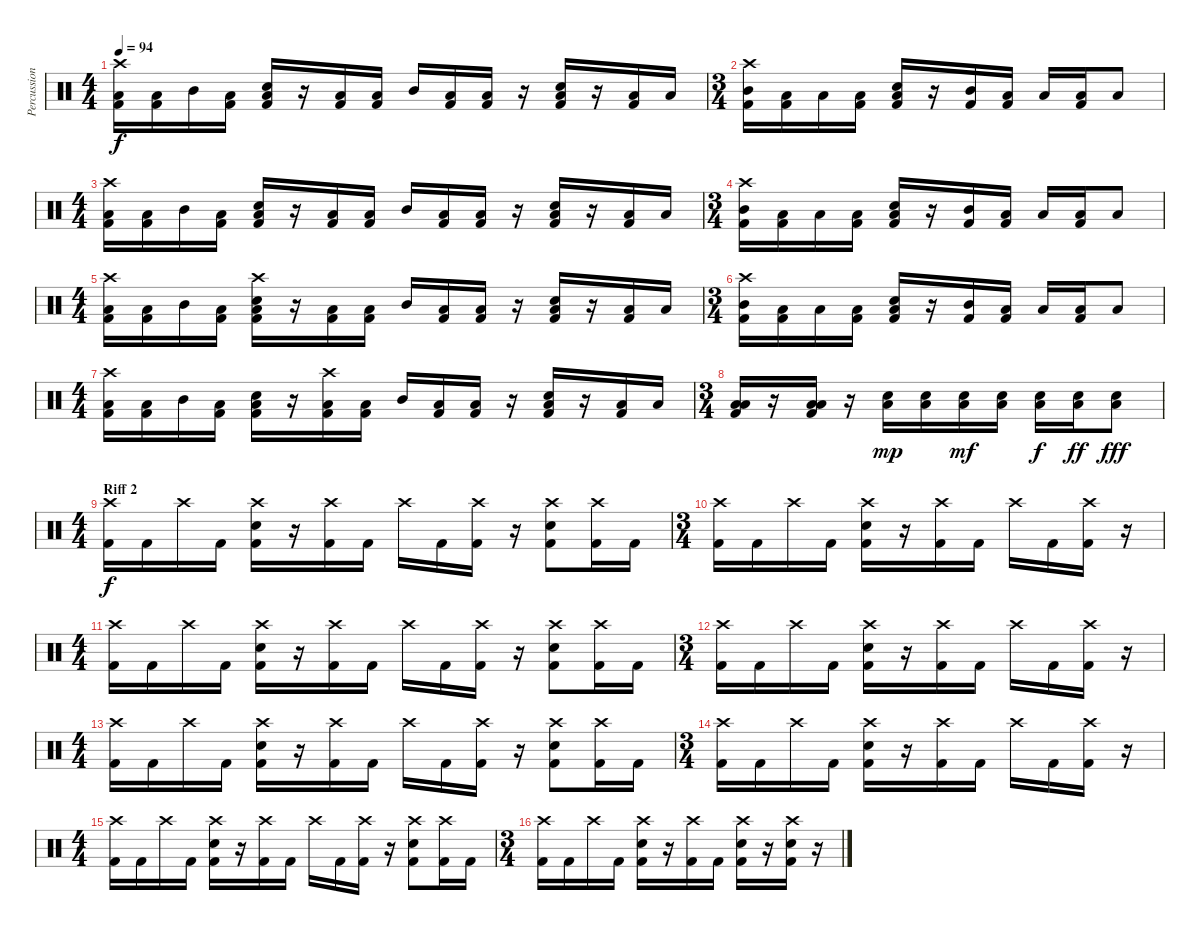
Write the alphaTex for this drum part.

\track ("Percussion" "Percussion") {instrument percussion}
\staff {score}
\articulation defaults
\ts (4 4)
\tempo 94
\clef neutral
\ks c
("Crash high (hit)" "Low Tom (hit)" "Kick (hit) 2").16{dy f} ("Low Floor Tom (hit)" "Kick (hit) 2").16 "Mid Tom (hit)".16 ("Low Tom (hit)" "Kick (hit) 2").16 ("Electric Snare (hit)" "Low Floor Tom (hit)" "Kick (hit) 2").16 r.16 ("Low Tom (hit)" "Kick (hit) 2").16 ("Low Floor Tom (hit)" "Kick (hit) 2").16 "Mid Tom (hit)".16 ("Low Tom (hit)" "Kick (hit) 2").16 ("Low Floor Tom (hit)" "Kick (hit) 2").16 r.16 ("Electric Snare (hit)" "Low Tom (hit)" "Kick (hit) 2").16 r.16 ("Low Tom (hit)" "Kick (hit) 2").16 "Low Floor Tom (hit)".16 |
\ts (3 4)
("Crash high (hit)" "Mid Tom (hit)" "Kick (hit) 2").16 ("Low Tom (hit)" "Kick (hit) 2").16 "Low Floor Tom (hit)".16 ("Low Tom (hit)" "Kick (hit) 2").16 ("Electric Snare (hit)" "Low Floor Tom (hit)" "Kick (hit) 2").16 r.16 ("Mid Tom (hit)" "Kick (hit) 2").16 ("Low Tom (hit)" "Kick (hit) 2").16 "Low Tom (hit)".16 ("Low Tom (hit)" "Kick (hit) 2").16 "Low Floor Tom (hit)".8 |
\ts (4 4)
("Crash high (hit)" "Low Tom (hit)" "Kick (hit) 2").16 ("Low Floor Tom (hit)" "Kick (hit) 2").16 "Mid Tom (hit)".16 ("Low Tom (hit)" "Kick (hit) 2").16 ("Electric Snare (hit)" "Low Floor Tom (hit)" "Kick (hit) 2").16 r.16 ("Low Tom (hit)" "Kick (hit) 2").16 ("Low Floor Tom (hit)" "Kick (hit) 2").16 "Mid Tom (hit)".16 ("Low Tom (hit)" "Kick (hit) 2").16 ("Low Floor Tom (hit)" "Kick (hit) 2").16 r.16 ("Electric Snare (hit)" "Low Tom (hit)" "Kick (hit) 2").16 r.16 ("Low Tom (hit)" "Kick (hit) 2").16 "Low Floor Tom (hit)".16 |
\ts (3 4)
("Crash high (hit)" "Mid Tom (hit)" "Kick (hit) 2").16 ("Low Tom (hit)" "Kick (hit) 2").16 "Low Floor Tom (hit)".16 ("Low Tom (hit)" "Kick (hit) 2").16 ("Electric Snare (hit)" "Low Floor Tom (hit)" "Kick (hit) 2").16 r.16 ("Mid Tom (hit)" "Kick (hit) 2").16 ("Low Tom (hit)" "Kick (hit) 2").16 "Low Tom (hit)".16 ("Low Tom (hit)" "Kick (hit) 2").16 "Low Floor Tom (hit)".8 |
\ts (4 4)
("Crash high (hit)" "Low Tom (hit)" "Kick (hit) 2").16 ("Low Floor Tom (hit)" "Kick (hit) 2").16 "Mid Tom (hit)".16 ("Low Tom (hit)" "Kick (hit) 2").16 ("Crash high (hit)" "Electric Snare (hit)" "Low Floor Tom (hit)" "Kick (hit) 2").16 r.16 ("Low Tom (hit)" "Kick (hit) 2").16 ("Low Floor Tom (hit)" "Kick (hit) 2").16 "Mid Tom (hit)".16 ("Low Tom (hit)" "Kick (hit) 2").16 ("Low Floor Tom (hit)" "Kick (hit) 2").16 r.16 ("Electric Snare (hit)" "Low Tom (hit)" "Kick (hit) 2").16 r.16 ("Low Tom (hit)" "Kick (hit) 2").16 "Low Floor Tom (hit)".16 |
\ts (3 4)
("Crash high (hit)" "Mid Tom (hit)" "Kick (hit) 2").16 ("Low Tom (hit)" "Kick (hit) 2").16 "Low Floor Tom (hit)".16 ("Low Tom (hit)" "Kick (hit) 2").16 ("Electric Snare (hit)" "Low Floor Tom (hit)" "Kick (hit) 2").16 r.16 ("Mid Tom (hit)" "Kick (hit) 2").16 ("Low Tom (hit)" "Kick (hit) 2").16 "Low Tom (hit)".16 ("Low Tom (hit)" "Kick (hit) 2").16 "Low Floor Tom (hit)".8 |
\ts (4 4)
("Crash high (hit)" "Low Tom (hit)" "Kick (hit) 2").16 ("Low Floor Tom (hit)" "Kick (hit) 2").16 "Mid Tom (hit)".16 ("Low Tom (hit)" "Kick (hit) 2").16 ("Electric Snare (hit)" "Low Floor Tom (hit)" "Kick (hit) 2").16 r.16 ("Crash high (hit)" "Low Tom (hit)" "Kick (hit) 2").16 ("Low Floor Tom (hit)" "Kick (hit) 2").16 "Mid Tom (hit)".16 ("Low Tom (hit)" "Kick (hit) 2").16 ("Low Floor Tom (hit)" "Kick (hit) 2").16 r.16 ("Electric Snare (hit)" "Low Tom (hit)" "Kick (hit) 2").16 r.16 ("Low Tom (hit)" "Kick (hit) 2").16 "Low Floor Tom (hit)".16 |
\ts (3 4)
("Low Tom (hit)" "Low Floor Tom (hit)" "Kick (hit) 2").16 r.16 ("Low Tom (hit)" "Low Floor Tom (hit)" "Kick (hit) 2").16 r.16 ("Electric Snare (hit)" "Low Floor Tom (hit)").16{dy mp} ("Electric Snare (hit)" "Low Floor Tom (hit)").16 ("Electric Snare (hit)" "Low Floor Tom (hit)").16{dy mf} ("Electric Snare (hit)" "Low Floor Tom (hit)").16 ("Electric Snare (hit)" "Low Floor Tom (hit)").16{dy f} ("Electric Snare (hit)" "Low Floor Tom (hit)").16{dy ff} ("Electric Snare (hit)" "Low Floor Tom (hit)").8{dy fff} |
\ts (4 4)
\section ("" "Riff 2")
("Crash high (hit)" "Kick (hit) 2").16{dy f} "Kick (hit) 2".16 "Crash high (hit)".16 "Kick (hit) 2".16 ("Crash high (hit)" "Electric Snare (hit)" "Kick (hit) 2").16 r.16 ("Crash high (hit)" "Kick (hit) 2").16 "Kick (hit) 2".16 "Crash high (hit)".16 "Kick (hit) 2".16 ("Crash high (hit)" "Kick (hit) 2").16 r.16 ("Crash high (hit)" "Electric Snare (hit)" "Kick (hit) 2").8 ("Crash high (hit)" "Kick (hit) 2").16 "Kick (hit) 2".16 |
\ts (3 4)
("Crash high (hit)" "Kick (hit) 2").16 "Kick (hit) 2".16 "Crash high (hit)".16 "Kick (hit) 2".16 ("Crash high (hit)" "Electric Snare (hit)" "Kick (hit) 2").16 r.16 ("Crash high (hit)" "Kick (hit) 2").16 "Kick (hit) 2".16 "Crash high (hit)".16 "Kick (hit) 2".16 ("Crash high (hit)" "Kick (hit) 2").16 r.16 |
\ts (4 4)
("Crash high (hit)" "Kick (hit) 2").16 "Kick (hit) 2".16 "Crash high (hit)".16 "Kick (hit) 2".16 ("Crash high (hit)" "Electric Snare (hit)" "Kick (hit) 2").16 r.16 ("Crash high (hit)" "Kick (hit) 2").16 "Kick (hit) 2".16 "Crash high (hit)".16 "Kick (hit) 2".16 ("Crash high (hit)" "Kick (hit) 2").16 r.16 ("Crash high (hit)" "Electric Snare (hit)" "Kick (hit) 2").8 ("Crash high (hit)" "Kick (hit) 2").16 "Kick (hit) 2".16 |
\ts (3 4)
("Crash high (hit)" "Kick (hit) 2").16 "Kick (hit) 2".16 "Crash high (hit)".16 "Kick (hit) 2".16 ("Crash high (hit)" "Electric Snare (hit)" "Kick (hit) 2").16 r.16 ("Crash high (hit)" "Kick (hit) 2").16 "Kick (hit) 2".16 "Crash high (hit)".16 "Kick (hit) 2".16 ("Crash high (hit)" "Kick (hit) 2").16 r.16 |
\ts (4 4)
("Crash high (hit)" "Kick (hit) 2").16 "Kick (hit) 2".16 "Crash high (hit)".16 "Kick (hit) 2".16 ("Crash high (hit)" "Electric Snare (hit)" "Kick (hit) 2").16 r.16 ("Crash high (hit)" "Kick (hit) 2").16 "Kick (hit) 2".16 "Crash high (hit)".16 "Kick (hit) 2".16 ("Crash high (hit)" "Kick (hit) 2").16 r.16 ("Crash high (hit)" "Electric Snare (hit)" "Kick (hit) 2").8 ("Crash high (hit)" "Kick (hit) 2").16 "Kick (hit) 2".16 |
\ts (3 4)
("Crash high (hit)" "Kick (hit) 2").16 "Kick (hit) 2".16 "Crash high (hit)".16 "Kick (hit) 2".16 ("Crash high (hit)" "Electric Snare (hit)" "Kick (hit) 2").16 r.16 ("Crash high (hit)" "Kick (hit) 2").16 "Kick (hit) 2".16 "Crash high (hit)".16 "Kick (hit) 2".16 ("Crash high (hit)" "Kick (hit) 2").16 r.16 |
\ts (4 4)
("Crash high (hit)" "Kick (hit) 2").16 "Kick (hit) 2".16 "Crash high (hit)".16 "Kick (hit) 2".16 ("Crash high (hit)" "Electric Snare (hit)" "Kick (hit) 2").16 r.16 ("Crash high (hit)" "Kick (hit) 2").16 "Kick (hit) 2".16 "Crash high (hit)".16 "Kick (hit) 2".16 ("Crash high (hit)" "Kick (hit) 2").16 r.16 ("Crash high (hit)" "Electric Snare (hit)" "Kick (hit) 2").8 ("Crash high (hit)" "Kick (hit) 2").16 "Kick (hit) 2".16 |
\ts (3 4)
("Crash high (hit)" "Kick (hit) 2").16 "Kick (hit) 2".16 "Crash high (hit)".16 "Kick (hit) 2".16 ("Crash high (hit)" "Electric Snare (hit)" "Kick (hit) 2").16 r.16 ("Crash high (hit)" "Kick (hit) 2").16 "Kick (hit) 2".16 ("Crash high (hit)" "Electric Snare (hit)" "Kick (hit) 2").16 r.16 ("Crash high (hit)" "Electric Snare (hit)" "Kick (hit) 2").16 r.16
